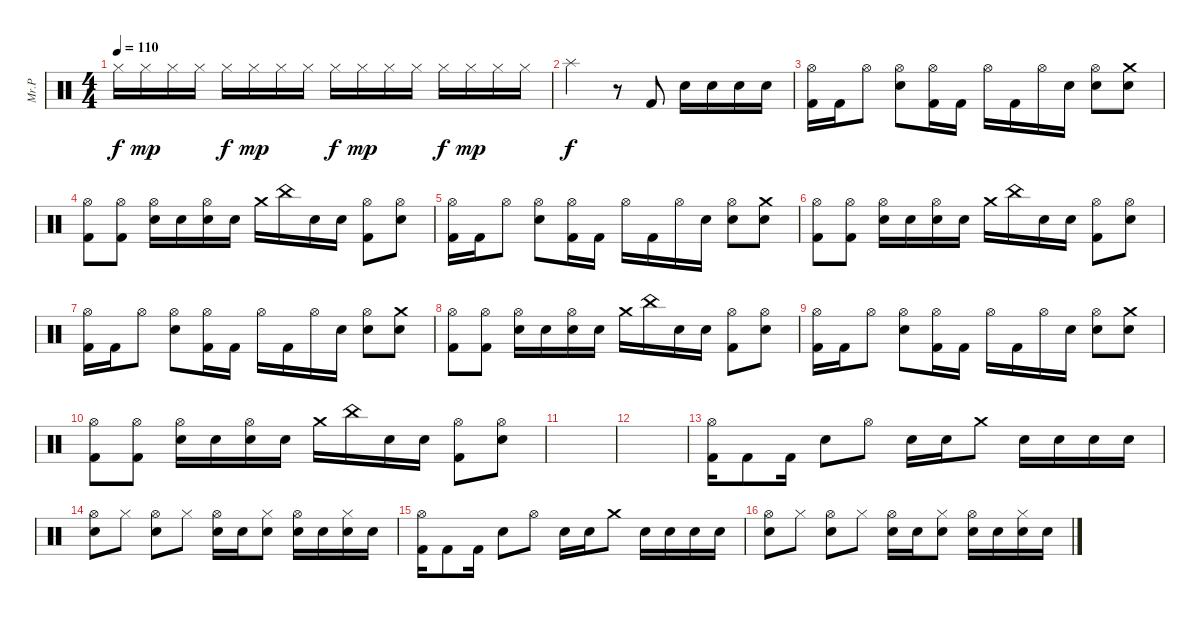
\track ("Mr.P" "Mr.P") {instrument percussion}
\staff {score}
\articulation defaults
\ts (4 4)
\tempo 110
\clef neutral
\ks c "Hi-Hat (closed)".16{dy f} "Hi-Hat (closed)".16{dy mp} "Hi-Hat (closed)".16 "Hi-Hat (closed)".16 "Hi-Hat (closed)".16{dy f} "Hi-Hat (closed)".16{dy mp} "Hi-Hat (closed)".16 "Hi-Hat (closed)".16 "Hi-Hat (closed)".16{dy f} "Hi-Hat (closed)".16{dy mp} "Hi-Hat (closed)".16 "Hi-Hat (closed)".16 "Hi-Hat (closed)".16{dy f} "Hi-Hat (closed)".16{dy mp} "Hi-Hat (closed)".16 "Hi-Hat (closed)".16
|
"Splash (hit)".2{dy f} r.8 "Kick (hit) 2".8 "Electric Snare (hit)".16 "Electric Snare (hit)".16 "Electric Snare (hit)".16 "Electric Snare (hit)".16 |
("Hi-Hat (open)" "Kick (hit) 2").16 "Kick (hit) 2".16 "Hi-Hat (open)".8 ("Hi-Hat (open)" "Electric Snare (hit)").8 ("Hi-Hat (open)" "Kick (hit) 2").16 "Kick (hit) 2".16 "Hi-Hat (open)".16 "Kick (hit) 2".16 "Hi-Hat (open)".16 "Electric Snare (hit)".16 ("Hi-Hat (open)" "Electric Snare (hit)").8 ("Crash medium (hit)" "Electric Snare (hit)").8 |
("Hi-Hat (open)" "Kick (hit) 2").8 ("Hi-Hat (open)" "Kick (hit) 2").8 ("Hi-Hat (open)" "Electric Snare (hit)").16 "Electric Snare (hit)".16 ("Hi-Hat (open)" "Electric Snare (hit)").16 "Electric Snare (hit)".16 "Crash medium (hit)".16 "China (hit)".16 "Electric Snare (hit)".16 "Electric Snare (hit)".16 ("Hi-Hat (open)" "Kick (hit) 2").8 ("Hi-Hat (open)" "Electric Snare (hit)").8 |
("Hi-Hat (open)" "Kick (hit) 2").16 "Kick (hit) 2".16 "Hi-Hat (open)".8 ("Hi-Hat (open)" "Electric Snare (hit)").8 ("Hi-Hat (open)" "Kick (hit) 2").16 "Kick (hit) 2".16 "Hi-Hat (open)".16 "Kick (hit) 2".16 "Hi-Hat (open)".16 "Electric Snare (hit)".16 ("Hi-Hat (open)" "Electric Snare (hit)").8 ("Crash medium (hit)" "Electric Snare (hit)").8 |
("Hi-Hat (open)" "Kick (hit) 2").8 ("Hi-Hat (open)" "Kick (hit) 2").8 ("Hi-Hat (open)" "Electric Snare (hit)").16 "Electric Snare (hit)".16 ("Hi-Hat (open)" "Electric Snare (hit)").16 "Electric Snare (hit)".16 "Crash medium (hit)".16 "China (hit)".16 "Electric Snare (hit)".16 "Electric Snare (hit)".16 ("Hi-Hat (open)" "Kick (hit) 2").8 ("Hi-Hat (open)" "Electric Snare (hit)").8 |
("Hi-Hat (open)" "Kick (hit) 2").16 "Kick (hit) 2".16 "Hi-Hat (open)".8 ("Hi-Hat (open)" "Electric Snare (hit)").8 ("Hi-Hat (open)" "Kick (hit) 2").16 "Kick (hit) 2".16 "Hi-Hat (open)".16 "Kick (hit) 2".16 "Hi-Hat (open)".16 "Electric Snare (hit)".16 ("Hi-Hat (open)" "Electric Snare (hit)").8 ("Crash medium (hit)" "Electric Snare (hit)").8 |
("Hi-Hat (open)" "Kick (hit) 2").8 ("Hi-Hat (open)" "Kick (hit) 2").8 ("Hi-Hat (open)" "Electric Snare (hit)").16 "Electric Snare (hit)".16 ("Hi-Hat (open)" "Electric Snare (hit)").16 "Electric Snare (hit)".16 "Crash medium (hit)".16 "China (hit)".16 "Electric Snare (hit)".16 "Electric Snare (hit)".16 ("Hi-Hat (open)" "Kick (hit) 2").8 ("Hi-Hat (open)" "Electric Snare (hit)").8 |
("Hi-Hat (open)" "Kick (hit) 2").16 "Kick (hit) 2".16 "Hi-Hat (open)".8 ("Hi-Hat (open)" "Electric Snare (hit)").8 ("Hi-Hat (open)" "Kick (hit) 2").16 "Kick (hit) 2".16 "Hi-Hat (open)".16 "Kick (hit) 2".16 "Hi-Hat (open)".16 "Electric Snare (hit)".16 ("Hi-Hat (open)" "Electric Snare (hit)").8 ("Crash medium (hit)" "Electric Snare (hit)").8 |
("Hi-Hat (open)" "Kick (hit) 2").8 ("Hi-Hat (open)" "Kick (hit) 2").8 ("Hi-Hat (open)" "Electric Snare (hit)").16 "Electric Snare (hit)".16 ("Hi-Hat (open)" "Electric Snare (hit)").16 "Electric Snare (hit)".16 "Crash medium (hit)".16 "China (hit)".16 "Electric Snare (hit)".16 "Electric Snare (hit)".16 ("Hi-Hat (open)" "Kick (hit) 2").8 ("Hi-Hat (open)" "Electric Snare (hit)").8 |
|
|
("Hi-Hat (open)" "Kick (hit) 2").16{volume 12 balance 8} "Kick (hit) 2".8 "Kick (hit) 2".16 "Electric Snare (hit)".8 "Hi-Hat (open)".8 "Electric Snare (hit)".16 "Electric Snare (hit)".16 "Crash medium (hit)".8 "Electric Snare (hit)".16 "Electric Snare (hit)".16 "Electric Snare (hit)".16 "Electric Snare (hit)".16 |
("Hi-Hat (open)" "Electric Snare (hit)").8 "Hi-Hat (closed)".8 ("Hi-Hat (open)" "Electric Snare (hit)").8 "Hi-Hat (closed)".8 ("Hi-Hat (open)" "Electric Snare (hit)").16 "Electric Snare (hit)".16 ("Hi-Hat (closed)" "Electric Snare (hit)").8 ("Hi-Hat (open)" "Electric Snare (hit)").16 "Electric Snare (hit)".16 ("Hi-Hat (closed)" "Electric Snare (hit)").16 "Electric Snare (hit)".16 |
("Hi-Hat (open)" "Kick (hit) 2").16 "Kick (hit) 2".8 "Kick (hit) 2".16 "Electric Snare (hit)".8 "Hi-Hat (open)".8 "Electric Snare (hit)".16 "Electric Snare (hit)".16 "Crash medium (hit)".8 "Electric Snare (hit)".16 "Electric Snare (hit)".16 "Electric Snare (hit)".16 "Electric Snare (hit)".16 |
("Hi-Hat (open)" "Electric Snare (hit)").8 "Hi-Hat (closed)".8 ("Hi-Hat (open)" "Electric Snare (hit)").8 "Hi-Hat (closed)".8 ("Hi-Hat (open)" "Electric Snare (hit)").16 "Electric Snare (hit)".16 ("Hi-Hat (closed)" "Electric Snare (hit)").8 ("Hi-Hat (open)" "Electric Snare (hit)").16 "Electric Snare (hit)".16 ("Hi-Hat (closed)" "Electric Snare (hit)").16 "Electric Snare (hit)".16
